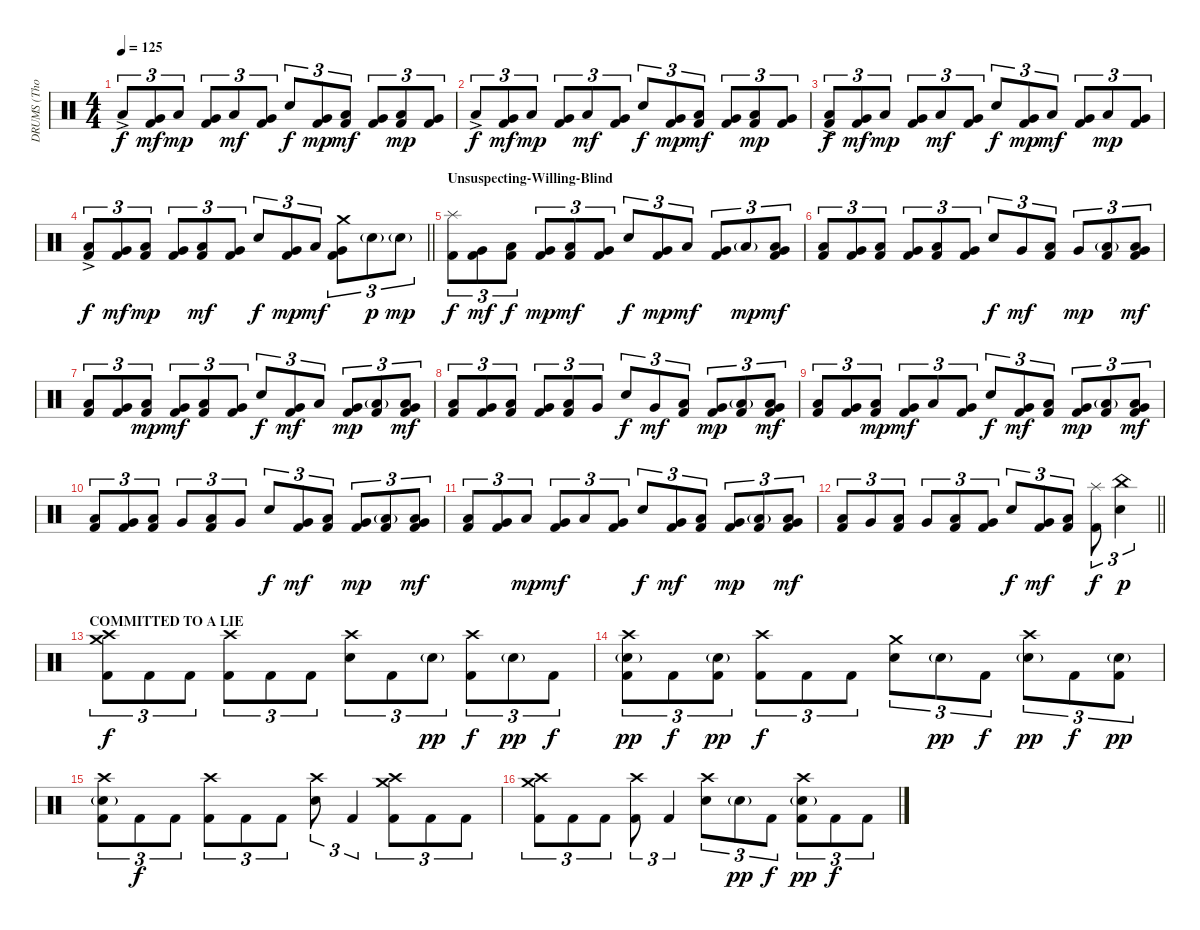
\track ("DRUMS (Thomas Haake)" "DRUMS (Tho") {instrument percussion}
\staff {score}
\articulation defaults
\ts (4 4)
\tempo 125
\clef neutral
\ks c "Low Floor Tom (hit)"{ac}.8{tu (3 2) dy f}
("Very Low Tom (hit)" "Kick (hit) 2").8{tu (3 2) dy mf} "Low Floor Tom (hit)".8{tu (3 2) dy mp} ("Very Low Tom (hit)" "Kick (hit) 2").8{tu (3 2)} "Low Floor Tom (hit)".8{tu (3 2) dy mf} ("Very Low Tom (hit)" "Kick (hit) 2").8{tu (3 2)} "Electric Snare (hit)".8{tu (3 2) dy f} ("Very Low Tom (hit)" "Kick (hit) 2").8{tu (3 2) dy mp} ("Low Floor Tom (hit)" "Kick (hit) 2").8{tu (3 2) dy mf} ("Very Low Tom (hit)" "Kick (hit) 2").8{tu (3 2)} ("Low Floor Tom (hit)" "Kick (hit) 2").8{tu (3 2) dy mp} ("Very Low Tom (hit)" "Kick (hit) 2").8{tu (3 2)} |
"Low Floor Tom (hit)"{ac}.8{tu (3 2) dy f} ("Very Low Tom (hit)" "Kick (hit) 2").8{tu (3 2) dy mf} "Low Floor Tom (hit)".8{tu (3 2) dy mp} ("Very Low Tom (hit)" "Kick (hit) 2").8{tu (3 2)} "Low Floor Tom (hit)".8{tu (3 2) dy mf} ("Very Low Tom (hit)" "Kick (hit) 2").8{tu (3 2)} "Electric Snare (hit)".8{tu (3 2) dy f} ("Very Low Tom (hit)" "Kick (hit) 2").8{tu (3 2) dy mp} ("Low Floor Tom (hit)" "Kick (hit) 2").8{tu (3 2) dy mf} ("Very Low Tom (hit)" "Kick (hit) 2").8{tu (3 2)} ("Low Floor Tom (hit)" "Kick (hit) 2").8{tu (3 2) dy mp} ("Very Low Tom (hit)" "Kick (hit) 2").8{tu (3 2)} |
("Low Floor Tom (hit)"{ac} "Kick (hit) 2").8{tu (3 2) dy f} ("Very Low Tom (hit)" "Kick (hit) 2").8{tu (3 2) dy mf} "Low Floor Tom (hit)".8{tu (3 2) dy mp} ("Very Low Tom (hit)" "Kick (hit) 2").8{tu (3 2)} "Low Floor Tom (hit)".8{tu (3 2) dy mf} ("Very Low Tom (hit)" "Kick (hit) 2").8{tu (3 2)} "Electric Snare (hit)".8{tu (3 2) dy f} ("Very Low Tom (hit)" "Kick (hit) 2").8{tu (3 2) dy mp} "Low Floor Tom (hit)".8{tu (3 2) dy mf} ("Very Low Tom (hit)" "Kick (hit) 2").8{tu (3 2)} "Low Floor Tom (hit)".8{tu (3 2) dy mp} ("Very Low Tom (hit)" "Kick (hit) 2").8{tu (3 2)} |
\barLineRight lightlight
("Low Floor Tom (hit)"{ac} "Kick (hit) 2").8{tu (3 2) dy f} ("Very Low Tom (hit)" "Kick (hit) 2").8{tu (3 2) dy mf} ("Low Floor Tom (hit)" "Kick (hit) 2").8{tu (3 2) dy mp} ("Very Low Tom (hit)" "Kick (hit) 2").8{tu (3 2)} ("Low Floor Tom (hit)" "Kick (hit) 2").8{tu (3 2) dy mf} ("Very Low Tom (hit)" "Kick (hit) 2").8{tu (3 2)} "Electric Snare (hit)".8{tu (3 2) dy f} ("Very Low Tom (hit)" "Kick (hit) 2").8{tu (3 2) dy mp} "Low Floor Tom (hit)".8{tu (3 2) dy mf} ("Crash medium (hit)" "Very Low Tom (hit)" "Kick (hit) 2").8{tu (3 2)} "Electric Snare (hit)"{g}.8{tu (3 2) dy p} "Electric Snare (hit)"{g}.8{tu (3 2) dy mp} |
\section ("" "Unsuspecting-Willing-Blind")
("Splash (hit)" "Kick (hit) 2").8{tu (3 2) dy f} ("Very Low Tom (hit)" "Kick (hit) 2").8{tu (3 2) dy mf} ("Low Tom (hit)" "Kick (hit) 2").8{tu (3 2) dy f} ("Very Low Tom (hit)" "Kick (hit) 2").8{tu (3 2) dy mp} ("Low Floor Tom (hit)" "Kick (hit) 2").8{tu (3 2) dy mf} ("Very Low Tom (hit)" "Kick (hit) 2").8{tu (3 2)} "Electric Snare (hit)".8{tu (3 2) dy f} ("Very Low Tom (hit)" "Kick (hit) 2").8{tu (3 2) dy mp} "Low Floor Tom (hit)".8{tu (3 2) dy mf} ("Very Low Tom (hit)" "Kick (hit) 2").8{tu (3 2)} "Low Floor Tom (hit)"{g}.8{tu (3 2) dy mp} ("Low Tom (hit)" "Very Low Tom (hit)" "Kick (hit) 2").8{tu (3 2) bd 30 dy mf} |
("Low Floor Tom (hit)" "Kick (hit) 2").8{tu (3 2)} ("Very Low Tom (hit)" "Kick (hit) 2").8{tu (3 2)} ("Low Floor Tom (hit)" "Kick (hit) 2").8{tu (3 2)} ("Very Low Tom (hit)" "Kick (hit) 2").8{tu (3 2)} ("Low Floor Tom (hit)" "Kick (hit) 2").8{tu (3 2)} ("Very Low Tom (hit)" "Kick (hit) 2").8{tu (3 2)} "Electric Snare (hit)".8{tu (3 2) dy f} "Very Low Tom (hit)".8{tu (3 2) dy mf} ("Low Floor Tom (hit)" "Kick (hit) 2").8{tu (3 2)} "Very Low Tom (hit)".8{tu (3 2) dy mp} ("Low Floor Tom (hit)"{g} "Kick (hit) 2").8{tu (3 2)} ("Low Tom (hit)" "Very Low Tom (hit)" "Kick (hit) 2").8{tu (3 2) bd 30 dy mf} |
("Low Floor Tom (hit)" "Kick (hit) 2").8{tu (3 2)} ("Very Low Tom (hit)" "Kick (hit) 2").8{tu (3 2)} ("Low Tom (hit)" "Kick (hit) 2").8{tu (3 2) dy mp} ("Very Low Tom (hit)" "Kick (hit) 2").8{tu (3 2) dy mf} ("Low Floor Tom (hit)" "Kick (hit) 2").8{tu (3 2)} ("Very Low Tom (hit)" "Kick (hit) 2").8{tu (3 2)} "Electric Snare (hit)".8{tu (3 2) dy f} ("Very Low Tom (hit)" "Kick (hit) 2").8{tu (3 2) dy mf} "Low Floor Tom (hit)".8{tu (3 2)} ("Very Low Tom (hit)" "Kick (hit) 2").8{tu (3 2) dy mp} ("Low Floor Tom (hit)"{g} "Kick (hit) 2").8{tu (3 2)} ("Low Tom (hit)" "Very Low Tom (hit)" "Kick (hit) 2").8{tu (3 2) bd 30 dy mf} |
("Low Floor Tom (hit)" "Kick (hit) 2").8{tu (3 2)} ("Very Low Tom (hit)" "Kick (hit) 2").8{tu (3 2)} ("Low Floor Tom (hit)" "Kick (hit) 2").8{tu (3 2)} ("Very Low Tom (hit)" "Kick (hit) 2").8{tu (3 2)} ("Low Floor Tom (hit)" "Kick (hit) 2").8{tu (3 2)} "Very Low Tom (hit)".8{tu (3 2)} "Electric Snare (hit)".8{tu (3 2) dy f} "Very Low Tom (hit)".8{tu (3 2) dy mf} ("Low Floor Tom (hit)" "Kick (hit) 2").8{tu (3 2)} ("Very Low Tom (hit)" "Kick (hit) 2").8{tu (3 2) dy mp} ("Low Floor Tom (hit)"{g} "Kick (hit) 2").8{tu (3 2)} ("Low Tom (hit)" "Very Low Tom (hit)" "Kick (hit) 2").8{tu (3 2) bd 60 dy mf} |
("Low Floor Tom (hit)" "Kick (hit) 2").8{tu (3 2)} ("Very Low Tom (hit)" "Kick (hit) 2").8{tu (3 2)} ("Low Tom (hit)" "Kick (hit) 2").8{tu (3 2) dy mp} ("Very Low Tom (hit)" "Kick (hit) 2").8{tu (3 2) dy mf} "Low Floor Tom (hit)".8{tu (3 2)} ("Very Low Tom (hit)" "Kick (hit) 2").8{tu (3 2)} "Electric Snare (hit)".8{tu (3 2) dy f} ("Very Low Tom (hit)" "Kick (hit) 2").8{tu (3 2) dy mf} ("Low Floor Tom (hit)" "Kick (hit) 2").8{tu (3 2)} ("Very Low Tom (hit)" "Kick (hit) 2").8{tu (3 2) dy mp} ("Low Floor Tom (hit)"{g} "Kick (hit) 2").8{tu (3 2)} ("Low Tom (hit)" "Very Low Tom (hit)" "Kick (hit) 2").8{tu (3 2) bd 30 dy mf} |
("Low Floor Tom (hit)" "Kick (hit) 2").8{tu (3 2)} ("Very Low Tom (hit)" "Kick (hit) 2").8{tu (3 2)} ("Low Floor Tom (hit)" "Kick (hit) 2").8{tu (3 2)} "Very Low Tom (hit)".8{tu (3 2)} ("Low Floor Tom (hit)" "Kick (hit) 2").8{tu (3 2)} "Very Low Tom (hit)".8{tu (3 2)} "Electric Snare (hit)".8{tu (3 2) dy f} ("Very Low Tom (hit)" "Kick (hit) 2").8{tu (3 2) dy mf} ("Low Floor Tom (hit)" "Kick (hit) 2").8{tu (3 2)} ("Very Low Tom (hit)" "Kick (hit) 2").8{tu (3 2) dy mp} ("Low Floor Tom (hit)"{g} "Kick (hit) 2").8{tu (3 2)} ("Low Tom (hit)" "Very Low Tom (hit)" "Kick (hit) 2").8{tu (3 2) bd 30 dy mf} |
("Low Floor Tom (hit)" "Kick (hit) 2").8{tu (3 2)} ("Very Low Tom (hit)" "Kick (hit) 2").8{tu (3 2)} "Low Tom (hit)".8{tu (3 2) dy mp} ("Very Low Tom (hit)" "Kick (hit) 2").8{tu (3 2) dy mf} "Low Floor Tom (hit)".8{tu (3 2)} ("Very Low Tom (hit)" "Kick (hit) 2").8{tu (3 2)} "Electric Snare (hit)".8{tu (3 2) dy f} ("Very Low Tom (hit)" "Kick (hit) 2").8{tu (3 2) dy mf} ("Low Floor Tom (hit)" "Kick (hit) 2").8{tu (3 2)} ("Very Low Tom (hit)" "Kick (hit) 2").8{tu (3 2) dy mp} ("Low Floor Tom (hit)"{g} "Kick (hit) 2").8{tu (3 2)} ("Low Tom (hit)" "Very Low Tom (hit)" "Kick (hit) 2").8{tu (3 2) bd 30 dy mf} |
\barLineRight lightlight
("Low Floor Tom (hit)" "Kick (hit) 2").8{tu (3 2)} "Very Low Tom (hit)".8{tu (3 2)} ("Low Floor Tom (hit)" "Kick (hit) 2").8{tu (3 2)} "Very Low Tom (hit)".8{tu (3 2)} ("Low Floor Tom (hit)" "Kick (hit) 2").8{tu (3 2)} ("Very Low Tom (hit)" "Kick (hit) 2").8{tu (3 2)} "Electric Snare (hit)".8{tu (3 2) dy f} ("Very Low Tom (hit)" "Kick (hit) 2").8{tu (3 2) dy mf} ("Low Floor Tom (hit)" "Kick (hit) 2").8{tu (3 2)} ("Splash (hit)" "Kick (hit) 2").8{tu (3 2) dy f} ("China (hit)" "Electric Snare (hit)").4{tu (3 2) dy p} |
\section ("" "COMMITTED TO A LIE")
("Crash high (hit)" "Crash medium (hit)" "Kick (hit) 2").8{tu (3 2) dy f} "Kick (hit) 2".8{tu (3 2)} "Kick (hit) 2".8{tu (3 2)} ("Crash high (hit)" "Kick (hit) 2").8{tu (3 2)} "Kick (hit) 2".8{tu (3 2)} "Kick (hit) 2".8{tu (3 2)} ("Crash high (hit)" "Electric Snare (hit)").8{tu (3 2)} "Kick (hit) 2".8{tu (3 2)} "Electric Snare (hit)"{g}.8{tu (3 2) dy pp} ("Crash high (hit)" "Kick (hit) 2").8{tu (3 2) dy f} "Electric Snare (hit)"{g}.8{tu (3 2) dy pp} "Kick (hit) 2".8{tu (3 2) dy f} |
("Crash high (hit)" "Electric Snare (hit)"{g} "Kick (hit) 2").8{tu (3 2) dy pp} "Kick (hit) 2".8{tu (3 2) dy f} ("Electric Snare (hit)"{g} "Kick (hit) 2").8{tu (3 2) dy pp} ("Crash high (hit)" "Kick (hit) 2").8{tu (3 2) dy f} "Kick (hit) 2".8{tu (3 2)} "Kick (hit) 2".8{tu (3 2)} ("Crash medium (hit)" "Electric Snare (hit)").8{tu (3 2)} "Electric Snare (hit)"{g}.8{tu (3 2) dy pp} "Kick (hit) 2".8{tu (3 2) dy f} ("Crash high (hit)" "Electric Snare (hit)"{g}).8{tu (3 2) dy pp} "Kick (hit) 2".8{tu (3 2) dy f} ("Electric Snare (hit)"{g} "Kick (hit) 2").8{tu (3 2) dy pp} |
("Crash high (hit)" "Electric Snare (hit)"{g} "Kick (hit) 2").8{tu (3 2)} "Kick (hit) 2".8{tu (3 2) dy f} "Kick (hit) 2".8{tu (3 2)} ("Crash high (hit)" "Kick (hit) 2").8{tu (3 2)} "Kick (hit) 2".8{tu (3 2)} "Kick (hit) 2".8{tu (3 2)} ("Crash high (hit)" "Electric Snare (hit)").8{tu (3 2)} "Kick (hit) 2".4{tu (3 2)} ("Crash high (hit)" "Crash medium (hit)" "Kick (hit) 2").8{tu (3 2)} "Kick (hit) 2".8{tu (3 2)} "Kick (hit) 2".8{tu (3 2)} |
("Crash high (hit)" "Crash medium (hit)" "Kick (hit) 2").8{tu (3 2)} "Kick (hit) 2".8{tu (3 2)} "Kick (hit) 2".8{tu (3 2)} ("Crash high (hit)" "Kick (hit) 2").8{tu (3 2)} "Kick (hit) 2".4{tu (3 2)} ("Crash high (hit)" "Electric Snare (hit)").8{tu (3 2)} "Electric Snare (hit)"{g}.8{tu (3 2) dy pp} "Kick (hit) 2".8{tu (3 2) dy f} ("Crash high (hit)" "Electric Snare (hit)"{g} "Kick (hit) 2").8{tu (3 2) dy pp} "Kick (hit) 2".8{tu (3 2) dy f} "Kick (hit) 2".8{tu (3 2)}
